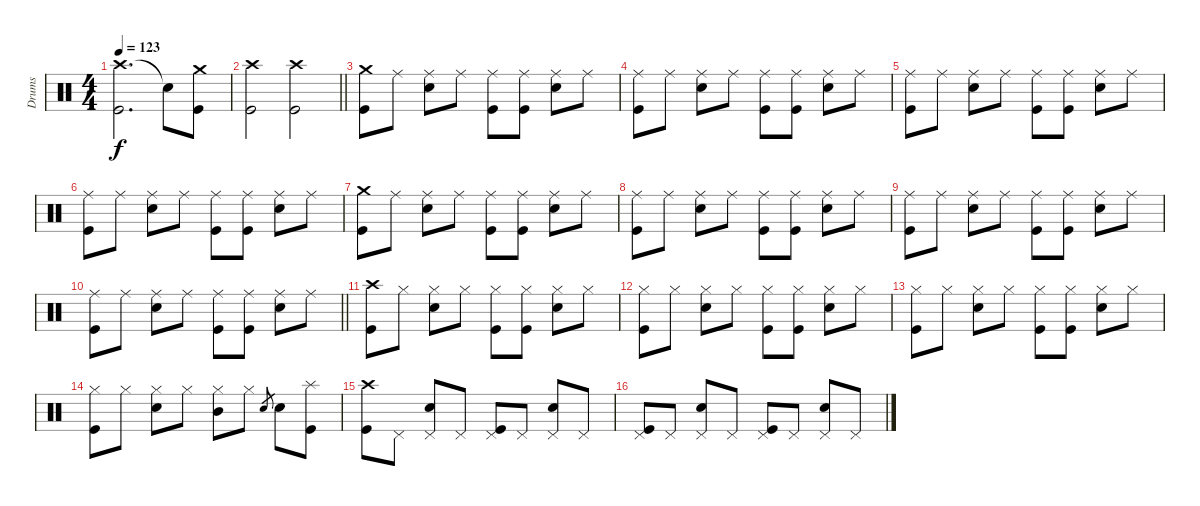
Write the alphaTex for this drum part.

\track ("Drums" "Drums") {instrument percussion}
\staff {score}
\articulation defaults
\ts (4 4)
\tempo 123
\clef neutral
\ks c
("Crash high (hit)" "Kick (hit)").2{d dy f} "Snare (hit)"{t}.8 ("Crash medium (hit)" "Kick (hit)").8 |
\barLineRight lightlight
("Crash high (hit)" "Kick (hit)").2 ("Crash high (hit)" "Kick (hit)").2 |
("Crash medium (hit)" "Kick (hit)").8 "Ride (middle)".8 ("Ride (middle)" "Electric Snare (hit)").8 "Ride (middle)".8 ("Ride (middle)" "Kick (hit)").8 ("Ride (middle)" "Kick (hit)").8 ("Ride (middle)" "Electric Snare (hit)").8 "Ride (middle)".8 |
("Ride (middle)" "Kick (hit)").8 "Ride (middle)".8 ("Ride (middle)" "Electric Snare (hit)").8 "Ride (middle)".8 ("Ride (middle)" "Kick (hit)").8 ("Ride (middle)" "Kick (hit)").8 ("Ride (middle)" "Electric Snare (hit)").8 "Ride (middle)".8 |
("Ride (middle)" "Kick (hit)").8 "Ride (middle)".8 ("Ride (middle)" "Electric Snare (hit)").8 "Ride (middle)".8 ("Ride (middle)" "Kick (hit)").8 ("Ride (middle)" "Kick (hit)").8 ("Ride (middle)" "Electric Snare (hit)").8 "Ride (middle)".8 |
("Ride (middle)" "Kick (hit)").8 "Ride (middle)".8 ("Ride (middle)" "Electric Snare (hit)").8 "Ride (middle)".8 ("Ride (middle)" "Kick (hit)").8 ("Ride (middle)" "Kick (hit)").8 ("Ride (middle)" "Electric Snare (hit)").8 "Ride (middle)".8 |
("Crash medium (hit)" "Kick (hit)").8 "Ride (middle)".8 ("Ride (middle)" "Electric Snare (hit)").8 "Ride (middle)".8 ("Ride (middle)" "Kick (hit)").8 ("Ride (middle)" "Kick (hit)").8 ("Ride (middle)" "Electric Snare (hit)").8 "Ride (middle)".8 |
("Ride (middle)" "Kick (hit)").8 "Ride (middle)".8 ("Ride (middle)" "Electric Snare (hit)").8 "Ride (middle)".8 ("Ride (middle)" "Kick (hit)").8 ("Ride (middle)" "Kick (hit)").8 ("Ride (middle)" "Electric Snare (hit)").8 "Ride (middle)".8 |
("Ride (middle)" "Kick (hit)").8 "Ride (middle)".8 ("Ride (middle)" "Electric Snare (hit)").8 "Ride (middle)".8 ("Ride (middle)" "Kick (hit)").8 ("Ride (middle)" "Kick (hit)").8 ("Ride (middle)" "Electric Snare (hit)").8 "Ride (middle)".8 |
\barLineRight lightlight
("Ride (middle)" "Kick (hit)").8 "Ride (middle)".8 ("Ride (middle)" "Electric Snare (hit)").8 "Ride (middle)".8 ("Ride (middle)" "Kick (hit)").8 ("Ride (middle)" "Kick (hit)").8 ("Ride (middle)" "Electric Snare (hit)").8 "Ride (middle)".8 |
("Crash high (hit)" "Kick (hit)").8 "Hi-Hat (closed)".8 ("Hi-Hat (closed)" "Electric Snare (hit)").8 "Hi-Hat (closed)".8 ("Hi-Hat (closed)" "Kick (hit)").8 ("Hi-Hat (closed)" "Kick (hit)").8 ("Hi-Hat (closed)" "Electric Snare (hit)").8 "Hi-Hat (closed)".8 |
("Hi-Hat (closed)" "Kick (hit)").8 "Hi-Hat (closed)".8 ("Hi-Hat (closed)" "Electric Snare (hit)").8 "Hi-Hat (closed)".8 ("Hi-Hat (closed)" "Kick (hit)").8 ("Hi-Hat (closed)" "Kick (hit)").8 ("Hi-Hat (closed)" "Electric Snare (hit)").8 "Hi-Hat (closed)".8 |
("Hi-Hat (closed)" "Kick (hit)").8 "Hi-Hat (closed)".8 ("Hi-Hat (closed)" "Electric Snare (hit)").8 "Hi-Hat (closed)".8 ("Hi-Hat (closed)" "Kick (hit)").8 ("Hi-Hat (closed)" "Kick (hit)").8 ("Hi-Hat (closed)" "Electric Snare (hit)").8 "Hi-Hat (closed)".8 |
("Hi-Hat (closed)" "Kick (hit)").8 "Hi-Hat (closed)".8 ("Hi-Hat (closed)" "Electric Snare (hit)").8 "Hi-Hat (closed)".8 ("Hi-Hat (closed)" "Mid Tom (hit)").8 "Hi-Hat (closed)".8 "Electric Snare (hit)".8{gr} "Electric Snare (hit)".8 ("Splash (hit)" "Kick (hit)").8 |
("Crash high (hit)" "Kick (hit)").8 "Pedal Hi-Hat (hit)".8 ("Pedal Hi-Hat (hit)" "Electric Snare (hit)").8 "Pedal Hi-Hat (hit)".8 ("Pedal Hi-Hat (hit)" "Kick (hit)").8 "Pedal Hi-Hat (hit)".8 ("Pedal Hi-Hat (hit)" "Electric Snare (hit)").8 "Pedal Hi-Hat (hit)".8 |
("Pedal Hi-Hat (hit)" "Kick (hit)").8 "Pedal Hi-Hat (hit)".8 ("Pedal Hi-Hat (hit)" "Electric Snare (hit)").8 "Pedal Hi-Hat (hit)".8 ("Pedal Hi-Hat (hit)" "Kick (hit)").8 "Pedal Hi-Hat (hit)".8 ("Pedal Hi-Hat (hit)" "Electric Snare (hit)").8 "Pedal Hi-Hat (hit)".8
